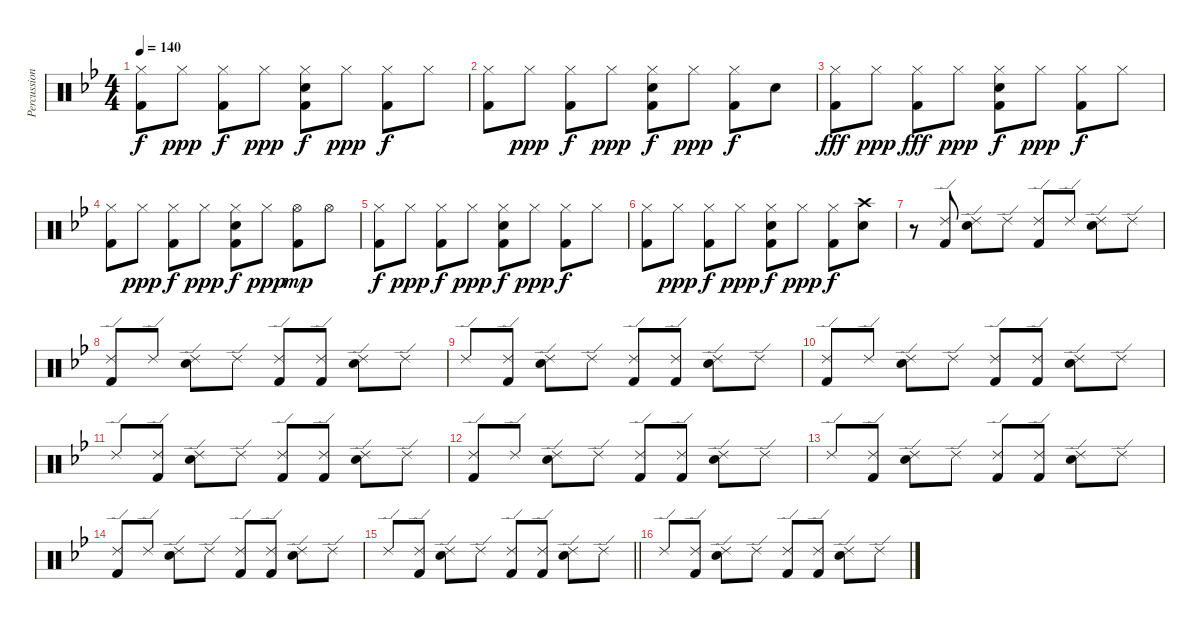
\track ("Percussion" "Percussion") {instrument percussion}
\staff {score}
\articulation defaults
\ts (4 4)
\tempo 140
\clef neutral
\ks bb
("Hi-Hat (closed)" "Kick (hit) 2").8{dy f} "Hi-Hat (closed)".8{dy ppp} ("Hi-Hat (closed)" "Kick (hit) 2").8{dy f} "Hi-Hat (closed)".8{dy ppp} ("Hi-Hat (closed)" "Electric Snare (hit)" "Kick (hit) 2").8{dy f} "Hi-Hat (closed)".8{dy ppp} ("Hi-Hat (closed)" "Kick (hit) 2").8{dy f} "Hi-Hat (closed)".8 |
("Hi-Hat (closed)" "Kick (hit) 2").8 "Hi-Hat (closed)".8{dy ppp} ("Hi-Hat (closed)" "Kick (hit) 2").8{dy f} "Hi-Hat (closed)".8{dy ppp} ("Hi-Hat (closed)" "Electric Snare (hit)" "Kick (hit) 2").8{dy f} "Hi-Hat (closed)".8{dy ppp} ("Hi-Hat (closed)" "Kick (hit) 2").8{dy f} "Electric Snare (hit)".8 |
("Hi-Hat (closed)" "Kick (hit) 2").8{dy fff} "Hi-Hat (closed)".8{dy ppp} ("Hi-Hat (closed)" "Kick (hit) 2").8{dy fff} "Hi-Hat (closed)".8{dy ppp} ("Hi-Hat (closed)" "Electric Snare (hit)" "Kick (hit) 2").8{dy f} "Hi-Hat (closed)".8{dy ppp} ("Hi-Hat (closed)" "Kick (hit) 2").8{dy f} "Hi-Hat (closed)".8 |
("Hi-Hat (closed)" "Kick (hit) 2").8 "Hi-Hat (closed)".8{dy ppp} ("Hi-Hat (closed)" "Kick (hit) 2").8{dy f} "Hi-Hat (closed)".8{dy ppp} ("Hi-Hat (closed)" "Electric Snare (hit)" "Kick (hit) 2").8{dy f} "Hi-Hat (closed)".8{dy ppp} ("Hi-Hat (open)" "Kick (hit) 2").8{dy mp} "Hi-Hat (open)".8 |
("Hi-Hat (closed)" "Kick (hit) 2").8{dy f} "Hi-Hat (closed)".8{dy ppp} ("Hi-Hat (closed)" "Kick (hit) 2").8{dy f} "Hi-Hat (closed)".8{dy ppp} ("Hi-Hat (closed)" "Electric Snare (hit)" "Kick (hit) 2").8{dy f} "Hi-Hat (closed)".8{dy ppp} ("Hi-Hat (closed)" "Kick (hit) 2").8{dy f} "Hi-Hat (closed)".8 |
("Hi-Hat (closed)" "Kick (hit) 2").8 "Hi-Hat (closed)".8{dy ppp} ("Hi-Hat (closed)" "Kick (hit) 2").8{dy f} "Hi-Hat (closed)".8{dy ppp} ("Hi-Hat (closed)" "Electric Snare (hit)" "Kick (hit) 2").8{dy f} "Hi-Hat (closed)".8{dy ppp} ("Hi-Hat (closed)" "Kick (hit) 2").8{dy f} ("Crash high (hit)" "Electric Snare (hit)").8 |
r.8 ("Ride (edge) 2" "Kick (hit) 2").8 ("Ride (edge) 2" "Electric Snare (hit)").8 "Ride (edge) 2".8 ("Ride (edge) 2" "Kick (hit) 2").8 "Ride (edge) 2".8 ("Ride (edge) 2" "Electric Snare (hit)").8 "Ride (edge) 2".8 |
("Ride (edge) 2" "Kick (hit) 2").8 "Ride (edge) 2".8 ("Ride (edge) 2" "Electric Snare (hit)").8 "Ride (edge) 2".8 ("Ride (edge) 2" "Kick (hit) 2").8 ("Ride (edge) 2" "Kick (hit) 2").8 ("Ride (edge) 2" "Electric Snare (hit)").8 "Ride (edge) 2".8 |
"Ride (edge) 2".8 ("Ride (edge) 2" "Kick (hit) 2").8 ("Ride (edge) 2" "Electric Snare (hit)").8 "Ride (edge) 2".8 ("Ride (edge) 2" "Kick (hit) 2").8 ("Ride (edge) 2" "Kick (hit) 2").8 ("Ride (edge) 2" "Electric Snare (hit)").8 "Ride (edge) 2".8 |
("Ride (edge) 2" "Kick (hit) 2").8 "Ride (edge) 2".8 ("Ride (edge) 2" "Electric Snare (hit)").8 "Ride (edge) 2".8 ("Ride (edge) 2" "Kick (hit) 2").8 ("Ride (edge) 2" "Kick (hit) 2").8 ("Ride (edge) 2" "Electric Snare (hit)").8 "Ride (edge) 2".8 |
"Ride (edge) 2".8 ("Ride (edge) 2" "Kick (hit) 2").8 ("Ride (edge) 2" "Electric Snare (hit)").8 "Ride (edge) 2".8 ("Ride (edge) 2" "Kick (hit) 2").8 ("Ride (edge) 2" "Kick (hit) 2").8 ("Ride (edge) 2" "Electric Snare (hit)").8 "Ride (edge) 2".8 |
("Ride (edge) 2" "Kick (hit) 2").8 "Ride (edge) 2".8 ("Ride (edge) 2" "Electric Snare (hit)").8 "Ride (edge) 2".8 ("Ride (edge) 2" "Kick (hit) 2").8 ("Ride (edge) 2" "Kick (hit) 2").8 ("Ride (edge) 2" "Electric Snare (hit)").8 "Ride (edge) 2".8 |
"Ride (edge) 2".8 ("Ride (edge) 2" "Kick (hit) 2").8 ("Ride (edge) 2" "Electric Snare (hit)").8 "Ride (edge) 2".8 ("Ride (edge) 2" "Kick (hit) 2").8 ("Ride (edge) 2" "Kick (hit) 2").8 ("Ride (edge) 2" "Electric Snare (hit)").8 "Ride (edge) 2".8 |
("Ride (edge) 2" "Kick (hit) 2").8 "Ride (edge) 2".8 ("Ride (edge) 2" "Electric Snare (hit)").8 "Ride (edge) 2".8 ("Ride (edge) 2" "Kick (hit) 2").8 ("Ride (edge) 2" "Kick (hit) 2").8 ("Ride (edge) 2" "Electric Snare (hit)").8 "Ride (edge) 2".8 |
\barLineRight lightlight "Ride (edge) 2".8
("Ride (edge) 2" "Kick (hit) 2").8 ("Ride (edge) 2" "Electric Snare (hit)").8 "Ride (edge) 2".8 ("Ride (edge) 2" "Kick (hit) 2").8 ("Ride (edge) 2" "Kick (hit) 2").8 ("Ride (edge) 2" "Electric Snare (hit)").8 "Ride (edge) 2".8 |
"Ride (edge) 2".8 ("Ride (edge) 2" "Kick (hit) 2").8 ("Ride (edge) 2" "Electric Snare (hit)").8 "Ride (edge) 2".8 ("Ride (edge) 2" "Kick (hit) 2").8 ("Ride (edge) 2" "Kick (hit) 2").8 ("Ride (edge) 2" "Electric Snare (hit)").8 "Ride (edge) 2".8
